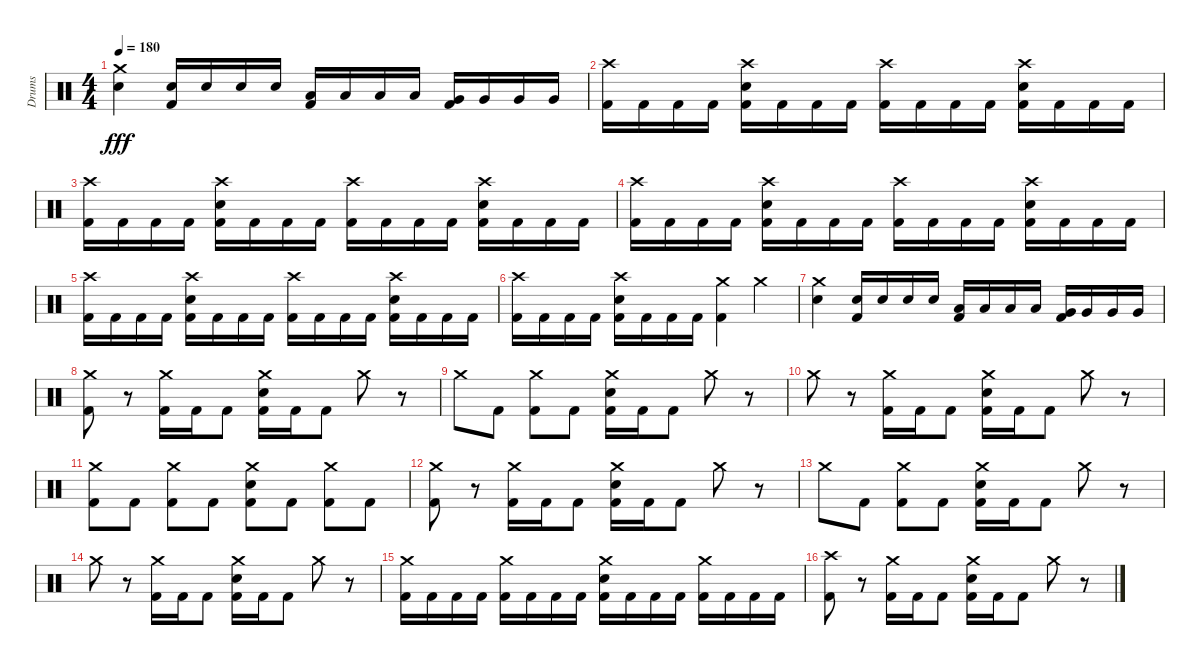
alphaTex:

\track ("Drums " "Drums ") {instrument percussion}
\staff {score}
\articulation defaults
\ts (4 4)
\tempo 180
\clef neutral
\ks c
("Crash medium (hit)" "Snare (hit) 2").4{dy fff} ("Snare (hit) 2" "Kick (hit) 2").16 "Snare (hit) 2".16 "Snare (hit) 2".16 "Snare (hit) 2".16 ("Low Tom (hit)" "Kick (hit) 2").16 "Low Tom (hit)".16 "Low Tom (hit)".16 "Low Tom (hit)".16 ("Very Low Tom (hit)" "Kick (hit) 2").16 "Very Low Tom (hit)".16 "Very Low Tom (hit)".16 "Very Low Tom (hit)".16 |
("Crash high (hit)" "Kick (hit) 2").16 "Kick (hit) 2".16 "Kick (hit) 2".16 "Kick (hit) 2".16 ("Crash high (hit)" "Snare (hit) 2" "Kick (hit) 2").16 "Kick (hit) 2".16 "Kick (hit) 2".16 "Kick (hit) 2".16 ("Crash high (hit)" "Kick (hit) 2").16 "Kick (hit) 2".16 "Kick (hit) 2".16 "Kick (hit) 2".16 ("Crash high (hit)" "Snare (hit) 2" "Kick (hit) 2").16 "Kick (hit) 2".16 "Kick (hit) 2".16 "Kick (hit) 2".16 |
("Crash high (hit)" "Kick (hit) 2").16 "Kick (hit) 2".16 "Kick (hit) 2".16 "Kick (hit) 2".16 ("Crash high (hit)" "Snare (hit) 2" "Kick (hit) 2").16 "Kick (hit) 2".16 "Kick (hit) 2".16 "Kick (hit) 2".16 ("Crash high (hit)" "Kick (hit) 2").16 "Kick (hit) 2".16 "Kick (hit) 2".16 "Kick (hit) 2".16 ("Crash high (hit)" "Snare (hit) 2" "Kick (hit) 2").16 "Kick (hit) 2".16 "Kick (hit) 2".16 "Kick (hit) 2".16 |
("Crash high (hit)" "Kick (hit) 2").16 "Kick (hit) 2".16 "Kick (hit) 2".16 "Kick (hit) 2".16 ("Crash high (hit)" "Snare (hit) 2" "Kick (hit) 2").16 "Kick (hit) 2".16 "Kick (hit) 2".16 "Kick (hit) 2".16 ("Crash high (hit)" "Kick (hit) 2").16 "Kick (hit) 2".16 "Kick (hit) 2".16 "Kick (hit) 2".16 ("Crash high (hit)" "Snare (hit) 2" "Kick (hit) 2").16 "Kick (hit) 2".16 "Kick (hit) 2".16 "Kick (hit) 2".16 |
("Crash high (hit)" "Kick (hit) 2").16 "Kick (hit) 2".16 "Kick (hit) 2".16 "Kick (hit) 2".16 ("Crash high (hit)" "Snare (hit) 2" "Kick (hit) 2").16 "Kick (hit) 2".16 "Kick (hit) 2".16 "Kick (hit) 2".16 ("Crash high (hit)" "Kick (hit) 2").16 "Kick (hit) 2".16 "Kick (hit) 2".16 "Kick (hit) 2".16 ("Crash high (hit)" "Snare (hit) 2" "Kick (hit) 2").16 "Kick (hit) 2".16 "Kick (hit) 2".16 "Kick (hit) 2".16 |
("Crash high (hit)" "Kick (hit) 2").16 "Kick (hit) 2".16 "Kick (hit) 2".16 "Kick (hit) 2".16 ("Crash high (hit)" "Snare (hit) 2" "Kick (hit) 2").16 "Kick (hit) 2".16 "Kick (hit) 2".16 "Kick (hit) 2".16 ("Crash medium (hit)" "Kick (hit) 2").4 "Crash medium (hit)".4 |
("Crash medium (hit)" "Snare (hit) 2").4 ("Snare (hit) 2" "Kick (hit) 2").16 "Snare (hit) 2".16 "Snare (hit) 2".16 "Snare (hit) 2".16 ("Low Tom (hit)" "Kick (hit) 2").16 "Low Tom (hit)".16 "Low Tom (hit)".16 "Low Tom (hit)".16 ("Very Low Tom (hit)" "Kick (hit) 2").16 "Very Low Tom (hit)".16 "Very Low Tom (hit)".16 "Very Low Tom (hit)".16 |
("Crash medium (hit)" "Kick (hit) 2").8 r.8 ("Crash medium (hit)" "Kick (hit) 2").16 "Kick (hit) 2".16 "Kick (hit) 2".8 ("Crash medium (hit)" "Snare (hit) 2" "Kick (hit) 2").16 "Kick (hit) 2".16 "Kick (hit) 2".8 "Crash medium (hit)".8 r.8 |
"Crash medium (hit)".8 "Kick (hit) 2".8 ("Crash medium (hit)" "Kick (hit) 2").8 "Kick (hit) 2".8 ("Crash medium (hit)" "Snare (hit) 2" "Kick (hit) 2").16 "Kick (hit) 2".16 "Kick (hit) 2".8 "Crash medium (hit)".8 r.8 |
"Crash medium (hit)".8 r.8 ("Crash medium (hit)" "Kick (hit) 2").16 "Kick (hit) 2".16 "Kick (hit) 2".8 ("Crash medium (hit)" "Snare (hit) 2" "Kick (hit) 2").16 "Kick (hit) 2".16 "Kick (hit) 2".8 "Crash medium (hit)".8 r.8 |
("Crash medium (hit)" "Kick (hit) 2").8 "Kick (hit) 2".8 ("Crash medium (hit)" "Kick (hit) 2").8 "Kick (hit) 2".8 ("Crash medium (hit)" "Snare (hit) 2" "Kick (hit) 2").8 "Kick (hit) 2".8 ("Crash medium (hit)" "Kick (hit) 2").8 "Kick (hit) 2".8 |
("Crash medium (hit)" "Kick (hit) 2").8 r.8 ("Crash medium (hit)" "Kick (hit) 2").16 "Kick (hit) 2".16 "Kick (hit) 2".8 ("Crash medium (hit)" "Snare (hit) 2" "Kick (hit) 2").16 "Kick (hit) 2".16 "Kick (hit) 2".8 "Crash medium (hit)".8 r.8 |
"Crash medium (hit)".8 "Kick (hit) 2".8 ("Crash medium (hit)" "Kick (hit) 2").8 "Kick (hit) 2".8 ("Crash medium (hit)" "Snare (hit) 2" "Kick (hit) 2").16 "Kick (hit) 2".16 "Kick (hit) 2".8 "Crash medium (hit)".8 r.8 |
"Crash medium (hit)".8 r.8 ("Crash medium (hit)" "Kick (hit) 2").16 "Kick (hit) 2".16 "Kick (hit) 2".8 ("Crash medium (hit)" "Snare (hit) 2" "Kick (hit) 2").16 "Kick (hit) 2".16 "Kick (hit) 2".8 "Crash medium (hit)".8 r.8 |
("Crash medium (hit)" "Kick (hit) 2").16 "Kick (hit) 2".16 "Kick (hit) 2".16 "Kick (hit) 2".16 ("Crash medium (hit)" "Kick (hit) 2").16 "Kick (hit) 2".16 "Kick (hit) 2".16 "Kick (hit) 2".16 ("Crash medium (hit)" "Snare (hit) 2" "Kick (hit) 2").16 "Kick (hit) 2".16 "Kick (hit) 2".16 "Kick (hit) 2".16 ("Crash medium (hit)" "Kick (hit) 2").16 "Kick (hit) 2".16 "Kick (hit) 2".16 "Kick (hit) 2".16 |
("Crash high (hit)" "Kick (hit) 2").8 r.8 ("Crash medium (hit)" "Kick (hit) 2").16 "Kick (hit) 2".16 "Kick (hit) 2".8 ("Crash medium (hit)" "Snare (hit) 2" "Kick (hit) 2").16 "Kick (hit) 2".16 "Kick (hit) 2".8 "Crash medium (hit)".8 r.8
